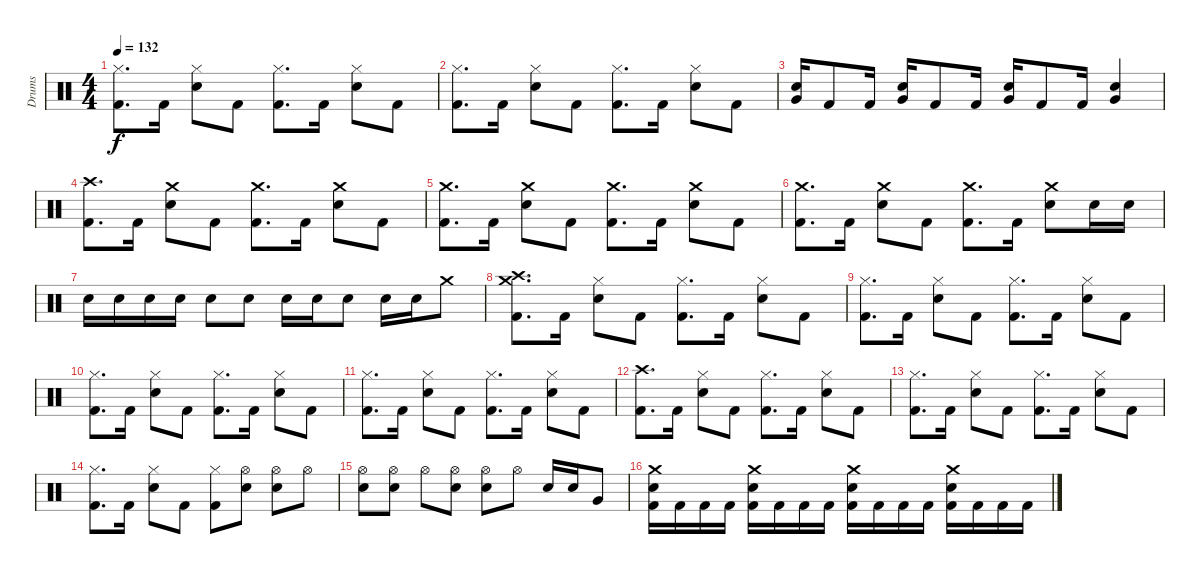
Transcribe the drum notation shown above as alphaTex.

\track ("Drums" "Drums") {instrument percussion}
\staff {score}
\articulation defaults
\ts (4 4)
\tempo 132
\clef neutral
\ks c
("Hi-Hat (closed)" "Kick (hit) 2").8{d dy f} "Kick (hit) 2".16 ("Hi-Hat (closed)" "Snare (hit) 2").8 "Kick (hit) 2".8 ("Hi-Hat (closed)" "Kick (hit) 2").8{d} "Kick (hit) 2".16 ("Hi-Hat (closed)" "Snare (hit) 2").8 "Kick (hit) 2".8 |
("Hi-Hat (closed)" "Kick (hit) 2").8{d} "Kick (hit) 2".16 ("Hi-Hat (closed)" "Snare (hit) 2").8 "Kick (hit) 2".8 ("Hi-Hat (closed)" "Kick (hit) 2").8{d} "Kick (hit) 2".16 ("Hi-Hat (closed)" "Snare (hit) 2").8 "Kick (hit) 2".8 |
("Very Low Tom (hit)" "Snare (hit) 2").16 "Kick (hit) 2".8 "Kick (hit) 2".16 ("Very Low Tom (hit)" "Snare (hit) 2").16 "Kick (hit) 2".8 "Kick (hit) 2".16 ("Very Low Tom (hit)" "Snare (hit) 2").16 "Kick (hit) 2".8 "Kick (hit) 2".16 ("Very Low Tom (hit)" "Snare (hit) 2").4 |
("Crash high (hit)" "Kick (hit) 2").8{d} "Kick (hit) 2".16 ("Crash medium (hit)" "Snare (hit) 2").8 "Kick (hit) 2".8 ("Crash medium (hit)" "Kick (hit) 2").8{d} "Kick (hit) 2".16 ("Crash medium (hit)" "Snare (hit) 2").8 "Kick (hit) 2".8 |
("Crash medium (hit)" "Kick (hit) 2").8{d} "Kick (hit) 2".16 ("Crash medium (hit)" "Snare (hit) 2").8 "Kick (hit) 2".8 ("Crash medium (hit)" "Kick (hit) 2").8{d} "Kick (hit) 2".16 ("Crash medium (hit)" "Snare (hit) 2").8 "Kick (hit) 2".8 |
("Crash medium (hit)" "Kick (hit) 2").8{d} "Kick (hit) 2".16 ("Crash medium (hit)" "Snare (hit) 2").8 "Kick (hit) 2".8 ("Crash medium (hit)" "Kick (hit) 2").8{d} "Kick (hit) 2".16 ("Crash medium (hit)" "Snare (hit) 2").8 "Snare (hit) 2".16 "Snare (hit) 2".16 |
"Snare (hit) 2".16 "Snare (hit) 2".16 "Snare (hit) 2".16 "Snare (hit) 2".16 "Snare (hit) 2".8 "Snare (hit) 2".8 "Snare (hit) 2".16 "Snare (hit) 2".16 "Snare (hit) 2".8 "Snare (hit) 2".16 "Snare (hit) 2".16 "Crash medium (hit)".8 |
("Crash medium (hit)" "Crash high (hit)" "Kick (hit) 2").8{d} "Kick (hit) 2".16 ("Hi-Hat (closed)" "Snare (hit) 2").8 "Kick (hit) 2".8 ("Hi-Hat (closed)" "Kick (hit) 2").8{d} "Kick (hit) 2".16 ("Hi-Hat (closed)" "Snare (hit) 2").8 "Kick (hit) 2".8 |
("Hi-Hat (closed)" "Kick (hit) 2").8{d} "Kick (hit) 2".16 ("Hi-Hat (closed)" "Snare (hit) 2").8 "Kick (hit) 2".8 ("Hi-Hat (closed)" "Kick (hit) 2").8{d} "Kick (hit) 2".16 ("Hi-Hat (closed)" "Snare (hit) 2").8 "Kick (hit) 2".8 |
("Hi-Hat (closed)" "Kick (hit) 2").8{d} "Kick (hit) 2".16 ("Hi-Hat (closed)" "Snare (hit) 2").8 "Kick (hit) 2".8 ("Hi-Hat (closed)" "Kick (hit) 2").8{d} "Kick (hit) 2".16 ("Hi-Hat (closed)" "Snare (hit) 2").8 "Kick (hit) 2".8 |
("Hi-Hat (closed)" "Kick (hit) 2").8{d} "Kick (hit) 2".16 ("Hi-Hat (closed)" "Snare (hit) 2").8 "Kick (hit) 2".8 ("Hi-Hat (closed)" "Kick (hit) 2").8{d} "Kick (hit) 2".16 ("Hi-Hat (closed)" "Snare (hit) 2").8 "Kick (hit) 2".8 |
("Crash high (hit)" "Kick (hit) 2").8{d} "Kick (hit) 2".16 ("Hi-Hat (closed)" "Snare (hit) 2").8 "Kick (hit) 2".8 ("Hi-Hat (closed)" "Kick (hit) 2").8{d} "Kick (hit) 2".16 ("Hi-Hat (closed)" "Snare (hit) 2").8 "Kick (hit) 2".8 |
("Hi-Hat (closed)" "Kick (hit) 2").8{d} "Kick (hit) 2".16 ("Hi-Hat (closed)" "Snare (hit) 2").8 "Kick (hit) 2".8 ("Hi-Hat (closed)" "Kick (hit) 2").8{d} "Kick (hit) 2".16 ("Hi-Hat (closed)" "Snare (hit) 2").8 "Kick (hit) 2".8 |
("Hi-Hat (closed)" "Kick (hit) 2").8{d} "Kick (hit) 2".16 ("Hi-Hat (closed)" "Snare (hit) 2").8 "Kick (hit) 2".8 ("Hi-Hat (closed)" "Kick (hit) 2").8 ("Hi-Hat (open)" "Snare (hit) 2").8 ("Hi-Hat (open)" "Snare (hit) 2").8 "Hi-Hat (open)".8 |
("Hi-Hat (open)" "Snare (hit) 2").8 ("Hi-Hat (open)" "Snare (hit) 2").8 "Hi-Hat (open)".8 ("Hi-Hat (open)" "Snare (hit) 2").8 ("Hi-Hat (open)" "Snare (hit) 2").8 "Hi-Hat (open)".8 "Snare (hit) 2".16 "Snare (hit) 2".16 "Very Low Tom (hit)".8 |
("Crash medium (hit)" "Snare (hit) 2" "Kick (hit) 2").16 "Kick (hit) 2".16 "Kick (hit) 2".16 "Kick (hit) 2".16 ("Crash medium (hit)" "Snare (hit) 2" "Kick (hit) 2").16 "Kick (hit) 2".16 "Kick (hit) 2".16 "Kick (hit) 2".16 ("Crash medium (hit)" "Snare (hit) 2" "Kick (hit) 2").16 "Kick (hit) 2".16 "Kick (hit) 2".16 "Kick (hit) 2".16 ("Crash medium (hit)" "Snare (hit) 2" "Kick (hit) 2").16 "Kick (hit) 2".16 "Kick (hit) 2".16 "Kick (hit) 2".16
